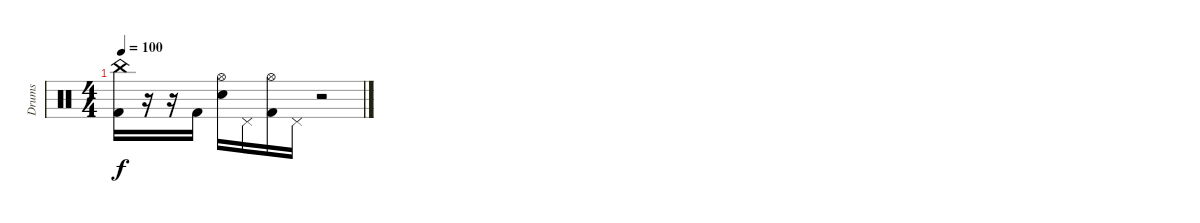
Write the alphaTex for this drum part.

\track ("Drums" "Drums") {instrument percussion}
\staff {score}
\articulation defaults
\ts (4 4)
\tempo 100
\clef neutral
\ks c
("China (hit)" "Kick (hit) 2").16{dy f} r.16 r.16 "Kick (hit) 2".16 ("Hi-Hat (open)" "Electric Snare (hit)").16 "Pedal Hi-Hat (hit)".16 ("Hi-Hat (open)" "Kick (hit) 2").16 "Pedal Hi-Hat (hit)".16 r.2
